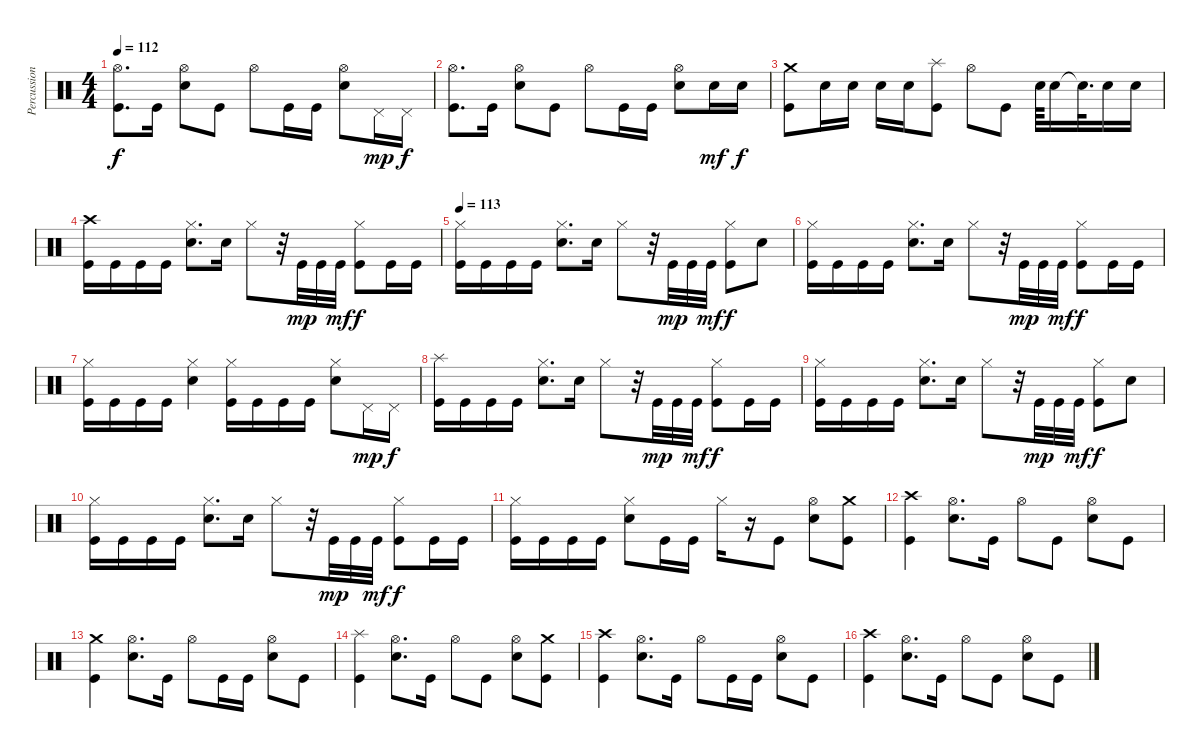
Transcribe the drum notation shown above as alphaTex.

\track ("Percussioni" "Percussion") {instrument percussion}
\staff {score}
\articulation defaults
\ts (4 4)
\tempo 112
\clef neutral
\ks c
("Hi-Hat (open)" "Kick (hit)").8{d dy f} "Kick (hit)".16 ("Hi-Hat (open)" "Snare (hit) 2").8 "Kick (hit)".8 "Hi-Hat (open)".8 "Kick (hit)".16 "Kick (hit)".16 ("Hi-Hat (open)" "Snare (hit) 2").8 "Pedal Hi-Hat (hit)".16{dy mp} "Pedal Hi-Hat (hit)".16{dy f} |
("Hi-Hat (open)" "Kick (hit)").8{d} "Kick (hit)".16 ("Hi-Hat (open)" "Snare (hit) 2").8 "Kick (hit)".8 "Hi-Hat (open)".8 "Kick (hit)".16 "Kick (hit)".16 ("Hi-Hat (open)" "Snare (hit) 2").8 "Snare (hit) 2".16{dy mf} "Snare (hit) 2".16{dy f} |
("Crash medium (hit)" "Kick (hit)").8 "Snare (hit) 2".16 "Snare (hit) 2".16 "Snare (hit) 2".16 "Snare (hit) 2".16 ("Splash (hit)" "Kick (hit)").8 "Hi-Hat (open)".8 "Kick (hit)".8 "Snare (hit) 2".64 "Snare (hit) 2".16 "Snare (hit)"{t}.32{d} "Snare (hit) 2".16 "Snare (hit) 2".16 |
("Crash high (hit)" "Kick (hit)").16 "Kick (hit)".16 "Kick (hit)".16 "Kick (hit)".16 ("Hi-Hat (closed)" "Snare (hit) 2").8{d} "Snare (hit) 2".16 "Hi-Hat (closed)".8 r.32 "Kick (hit)".32{dy mp} "Kick (hit)".32 "Kick (hit)".32{dy mf} ("Hi-Hat (closed)" "Kick (hit)").8{dy f} "Kick (hit)".16 "Kick (hit)".16 |
\tempo 113
("Hi-Hat (closed)" "Kick (hit)").16 "Kick (hit)".16 "Kick (hit)".16 "Kick (hit)".16 ("Hi-Hat (closed)" "Snare (hit) 2").8{d} "Snare (hit) 2".16 "Hi-Hat (closed)".8 r.32 "Kick (hit)".32{dy mp} "Kick (hit)".32 "Kick (hit)".32{dy mf} ("Hi-Hat (closed)" "Kick (hit)").8{dy f} "Snare (hit) 2".8 |
("Hi-Hat (closed)" "Kick (hit)").16 "Kick (hit)".16 "Kick (hit)".16 "Kick (hit)".16 ("Hi-Hat (closed)" "Snare (hit) 2").8{d} "Snare (hit) 2".16 "Hi-Hat (closed)".8 r.32 "Kick (hit)".32{dy mp} "Kick (hit)".32 "Kick (hit)".32{dy mf} ("Hi-Hat (closed)" "Kick (hit)").8{dy f} "Kick (hit)".16 "Kick (hit)".16 |
("Hi-Hat (closed)" "Kick (hit)").16 "Kick (hit)".16 "Kick (hit)".16 "Kick (hit)".16 ("Hi-Hat (closed)" "Snare (hit) 2").4 ("Hi-Hat (closed)" "Kick (hit)").16 "Kick (hit)".16 "Kick (hit)".16 "Kick (hit)".16 ("Hi-Hat (closed)" "Snare (hit) 2").8 "Pedal Hi-Hat (hit)".16{dy mp} "Pedal Hi-Hat (hit)".16{dy f} |
("Splash (hit)" "Kick (hit)").16 "Kick (hit)".16 "Kick (hit)".16 "Kick (hit)".16 ("Hi-Hat (closed)" "Snare (hit) 2").8{d} "Snare (hit) 2".16 "Hi-Hat (closed)".8 r.32 "Kick (hit)".32{dy mp} "Kick (hit)".32 "Kick (hit)".32{dy mf} ("Hi-Hat (closed)" "Kick (hit)").8{dy f} "Kick (hit)".16 "Kick (hit)".16 |
("Hi-Hat (closed)" "Kick (hit)").16 "Kick (hit)".16 "Kick (hit)".16 "Kick (hit)".16 ("Hi-Hat (closed)" "Snare (hit) 2").8{d} "Snare (hit) 2".16 "Hi-Hat (closed)".8 r.32 "Kick (hit)".32{dy mp} "Kick (hit)".32 "Kick (hit)".32{dy mf} ("Hi-Hat (closed)" "Kick (hit)").8{dy f} "Snare (hit) 2".8 |
("Hi-Hat (closed)" "Kick (hit)").16 "Kick (hit)".16 "Kick (hit)".16 "Kick (hit)".16 ("Hi-Hat (closed)" "Snare (hit) 2").8{d} "Snare (hit) 2".16 "Hi-Hat (closed)".8 r.32 "Kick (hit)".32{dy mp} "Kick (hit)".32 "Kick (hit)".32{dy mf} ("Hi-Hat (closed)" "Kick (hit)").8{dy f} "Kick (hit)".16 "Kick (hit)".16 |
("Hi-Hat (closed)" "Kick (hit)").16 "Kick (hit)".16 "Kick (hit)".16 "Kick (hit)".16 ("Hi-Hat (closed)" "Snare (hit) 2").8 "Kick (hit)".16 "Kick (hit)".16 "Hi-Hat (closed)".16 r.16 "Kick (hit)".8 ("Hi-Hat (open)" "Snare (hit) 2").8 ("Crash medium (hit)" "Kick (hit)").8 |
("Crash high (hit)" "Kick (hit)").4 ("Hi-Hat (open)" "Snare (hit) 2").8{d} "Kick (hit)".16 "Hi-Hat (open)".8 "Kick (hit)".8 ("Hi-Hat (open)" "Snare (hit) 2").8 "Kick (hit)".8 |
("Crash medium (hit)" "Kick (hit)").4 ("Hi-Hat (open)" "Snare (hit) 2").8{d} "Kick (hit)".16 "Hi-Hat (open)".8 "Kick (hit)".16 "Kick (hit)".16 ("Hi-Hat (open)" "Snare (hit) 2").8 "Kick (hit)".8 |
("Splash (hit)" "Kick (hit)").4 ("Hi-Hat (open)" "Snare (hit) 2").8{d} "Kick (hit)".16 "Hi-Hat (open)".8 "Kick (hit)".8 ("Hi-Hat (open)" "Snare (hit) 2").8 ("Crash medium (hit)" "Kick (hit)").8 |
("Crash high (hit)" "Kick (hit)").4 ("Hi-Hat (open)" "Snare (hit) 2").8{d} "Kick (hit)".16 "Hi-Hat (open)".8 "Kick (hit)".16 "Kick (hit)".16 ("Hi-Hat (open)" "Snare (hit) 2").8 "Kick (hit)".8 |
("Crash high (hit)" "Kick (hit)").4 ("Hi-Hat (open)" "Snare (hit) 2").8{d} "Kick (hit)".16 "Hi-Hat (open)".8 "Kick (hit)".8 ("Hi-Hat (open)" "Snare (hit) 2").8 "Kick (hit)".8
